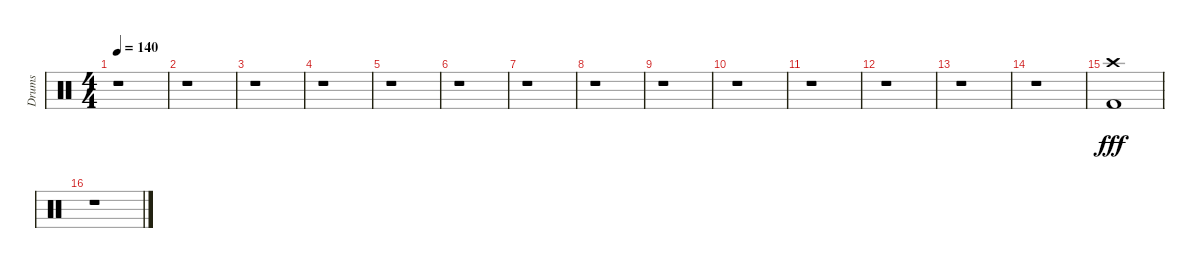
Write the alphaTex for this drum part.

\track ("Drums" "Drums") {instrument percussion}
\staff {score}
\articulation defaults
\ts (4 4)
\tempo 140
\clef neutral
\ks c
r.1{dy fff} |
r.1 |
r.1 |
r.1 |
r.1 |
r.1 |
r.1 |
r.1 |
r.1 |
r.1 |
r.1 |
r.1 |
r.1 |
r.1 |
("Crash high (hit)" "Kick (hit) 2").1 |
r.1
